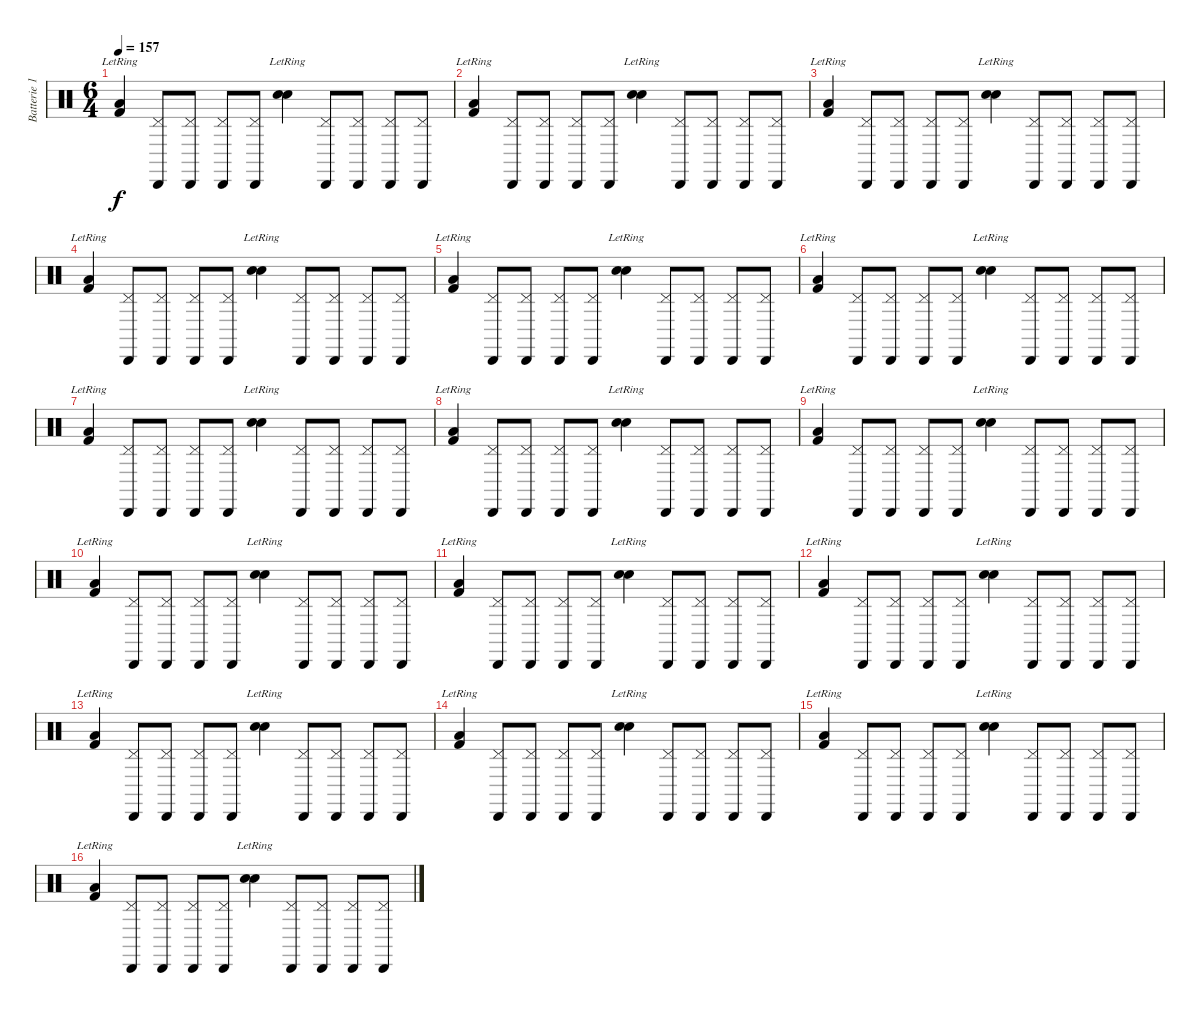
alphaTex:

\track ("Batterie 1" "Batterie 1") {instrument percussion}
\staff {score}
\articulation defaults
\ts (6 4)
\tempo 157
\clef neutral
\ks c
("Kick (hit) 2"{lr} "Low Floor Tom (hit)").4{dy f} ("Pedal Hi-Hat (hit)" "Cabasa (hit)").8 ("Pedal Hi-Hat (hit)" "Cabasa (hit)").8 ("Pedal Hi-Hat (hit)" "Cabasa (hit)").8 ("Pedal Hi-Hat (hit)" "Cabasa (hit)").8 ("Snare (hit) 2"{lr} "Electric Snare (hit)").4 ("Pedal Hi-Hat (hit)" "Cabasa (hit)").8 ("Pedal Hi-Hat (hit)" "Cabasa (hit)").8 ("Pedal Hi-Hat (hit)" "Cabasa (hit)").8 ("Pedal Hi-Hat (hit)" "Cabasa (hit)").8 |
("Kick (hit) 2"{lr} "Low Floor Tom (hit)").4 ("Pedal Hi-Hat (hit)" "Cabasa (hit)").8 ("Pedal Hi-Hat (hit)" "Cabasa (hit)").8 ("Pedal Hi-Hat (hit)" "Cabasa (hit)").8 ("Pedal Hi-Hat (hit)" "Cabasa (hit)").8 ("Snare (hit) 2"{lr} "Electric Snare (hit)").4 ("Pedal Hi-Hat (hit)" "Cabasa (hit)").8 ("Pedal Hi-Hat (hit)" "Cabasa (hit)").8 ("Pedal Hi-Hat (hit)" "Cabasa (hit)").8 ("Pedal Hi-Hat (hit)" "Cabasa (hit)").8 |
("Kick (hit) 2"{lr} "Low Floor Tom (hit)").4 ("Pedal Hi-Hat (hit)" "Cabasa (hit)").8 ("Pedal Hi-Hat (hit)" "Cabasa (hit)").8 ("Pedal Hi-Hat (hit)" "Cabasa (hit)").8 ("Pedal Hi-Hat (hit)" "Cabasa (hit)").8 ("Snare (hit) 2"{lr} "Electric Snare (hit)").4 ("Pedal Hi-Hat (hit)" "Cabasa (hit)").8 ("Pedal Hi-Hat (hit)" "Cabasa (hit)").8 ("Pedal Hi-Hat (hit)" "Cabasa (hit)").8 ("Pedal Hi-Hat (hit)" "Cabasa (hit)").8 |
("Kick (hit) 2"{lr} "Low Floor Tom (hit)").4 ("Pedal Hi-Hat (hit)" "Cabasa (hit)").8 ("Pedal Hi-Hat (hit)" "Cabasa (hit)").8 ("Pedal Hi-Hat (hit)" "Cabasa (hit)").8 ("Pedal Hi-Hat (hit)" "Cabasa (hit)").8 ("Snare (hit) 2"{lr} "Electric Snare (hit)").4 ("Pedal Hi-Hat (hit)" "Cabasa (hit)").8 ("Pedal Hi-Hat (hit)" "Cabasa (hit)").8 ("Pedal Hi-Hat (hit)" "Cabasa (hit)").8 ("Pedal Hi-Hat (hit)" "Cabasa (hit)").8 |
("Kick (hit) 2"{lr} "Low Floor Tom (hit)").4 ("Pedal Hi-Hat (hit)" "Cabasa (hit)").8 ("Pedal Hi-Hat (hit)" "Cabasa (hit)").8 ("Pedal Hi-Hat (hit)" "Cabasa (hit)").8 ("Pedal Hi-Hat (hit)" "Cabasa (hit)").8 ("Snare (hit) 2"{lr} "Electric Snare (hit)").4 ("Pedal Hi-Hat (hit)" "Cabasa (hit)").8 ("Pedal Hi-Hat (hit)" "Cabasa (hit)").8 ("Pedal Hi-Hat (hit)" "Cabasa (hit)").8 ("Pedal Hi-Hat (hit)" "Cabasa (hit)").8 |
("Kick (hit) 2"{lr} "Low Floor Tom (hit)").4 ("Pedal Hi-Hat (hit)" "Cabasa (hit)").8 ("Pedal Hi-Hat (hit)" "Cabasa (hit)").8 ("Pedal Hi-Hat (hit)" "Cabasa (hit)").8 ("Pedal Hi-Hat (hit)" "Cabasa (hit)").8 ("Snare (hit) 2"{lr} "Electric Snare (hit)").4 ("Pedal Hi-Hat (hit)" "Cabasa (hit)").8 ("Pedal Hi-Hat (hit)" "Cabasa (hit)").8 ("Pedal Hi-Hat (hit)" "Cabasa (hit)").8 ("Pedal Hi-Hat (hit)" "Cabasa (hit)").8 |
("Kick (hit) 2"{lr} "Low Floor Tom (hit)").4 ("Pedal Hi-Hat (hit)" "Cabasa (hit)").8 ("Pedal Hi-Hat (hit)" "Cabasa (hit)").8 ("Pedal Hi-Hat (hit)" "Cabasa (hit)").8 ("Pedal Hi-Hat (hit)" "Cabasa (hit)").8 ("Snare (hit) 2"{lr} "Electric Snare (hit)").4 ("Pedal Hi-Hat (hit)" "Cabasa (hit)").8 ("Pedal Hi-Hat (hit)" "Cabasa (hit)").8 ("Pedal Hi-Hat (hit)" "Cabasa (hit)").8 ("Pedal Hi-Hat (hit)" "Cabasa (hit)").8 |
("Kick (hit) 2"{lr} "Low Floor Tom (hit)").4 ("Pedal Hi-Hat (hit)" "Cabasa (hit)").8 ("Pedal Hi-Hat (hit)" "Cabasa (hit)").8 ("Pedal Hi-Hat (hit)" "Cabasa (hit)").8 ("Pedal Hi-Hat (hit)" "Cabasa (hit)").8 ("Snare (hit) 2"{lr} "Electric Snare (hit)").4 ("Pedal Hi-Hat (hit)" "Cabasa (hit)").8 ("Pedal Hi-Hat (hit)" "Cabasa (hit)").8 ("Pedal Hi-Hat (hit)" "Cabasa (hit)").8 ("Pedal Hi-Hat (hit)" "Cabasa (hit)").8 |
("Kick (hit) 2"{lr} "Low Floor Tom (hit)").4 ("Pedal Hi-Hat (hit)" "Cabasa (hit)").8 ("Pedal Hi-Hat (hit)" "Cabasa (hit)").8 ("Pedal Hi-Hat (hit)" "Cabasa (hit)").8 ("Pedal Hi-Hat (hit)" "Cabasa (hit)").8 ("Snare (hit) 2"{lr} "Electric Snare (hit)").4 ("Pedal Hi-Hat (hit)" "Cabasa (hit)").8 ("Pedal Hi-Hat (hit)" "Cabasa (hit)").8 ("Pedal Hi-Hat (hit)" "Cabasa (hit)").8 ("Pedal Hi-Hat (hit)" "Cabasa (hit)").8 |
("Kick (hit) 2"{lr} "Low Floor Tom (hit)").4 ("Pedal Hi-Hat (hit)" "Cabasa (hit)").8 ("Pedal Hi-Hat (hit)" "Cabasa (hit)").8 ("Pedal Hi-Hat (hit)" "Cabasa (hit)").8 ("Pedal Hi-Hat (hit)" "Cabasa (hit)").8 ("Snare (hit) 2"{lr} "Electric Snare (hit)").4 ("Pedal Hi-Hat (hit)" "Cabasa (hit)").8 ("Pedal Hi-Hat (hit)" "Cabasa (hit)").8 ("Pedal Hi-Hat (hit)" "Cabasa (hit)").8 ("Pedal Hi-Hat (hit)" "Cabasa (hit)").8 |
("Kick (hit) 2"{lr} "Low Floor Tom (hit)").4 ("Pedal Hi-Hat (hit)" "Cabasa (hit)").8 ("Pedal Hi-Hat (hit)" "Cabasa (hit)").8 ("Pedal Hi-Hat (hit)" "Cabasa (hit)").8 ("Pedal Hi-Hat (hit)" "Cabasa (hit)").8 ("Snare (hit) 2"{lr} "Electric Snare (hit)").4 ("Pedal Hi-Hat (hit)" "Cabasa (hit)").8 ("Pedal Hi-Hat (hit)" "Cabasa (hit)").8 ("Pedal Hi-Hat (hit)" "Cabasa (hit)").8 ("Pedal Hi-Hat (hit)" "Cabasa (hit)").8 |
("Kick (hit) 2"{lr} "Low Floor Tom (hit)").4 ("Pedal Hi-Hat (hit)" "Cabasa (hit)").8 ("Pedal Hi-Hat (hit)" "Cabasa (hit)").8 ("Pedal Hi-Hat (hit)" "Cabasa (hit)").8 ("Pedal Hi-Hat (hit)" "Cabasa (hit)").8 ("Snare (hit) 2"{lr} "Electric Snare (hit)").4 ("Pedal Hi-Hat (hit)" "Cabasa (hit)").8 ("Pedal Hi-Hat (hit)" "Cabasa (hit)").8 ("Pedal Hi-Hat (hit)" "Cabasa (hit)").8 ("Pedal Hi-Hat (hit)" "Cabasa (hit)").8 |
("Kick (hit) 2"{lr} "Low Floor Tom (hit)").4 ("Pedal Hi-Hat (hit)" "Cabasa (hit)").8 ("Pedal Hi-Hat (hit)" "Cabasa (hit)").8 ("Pedal Hi-Hat (hit)" "Cabasa (hit)").8 ("Pedal Hi-Hat (hit)" "Cabasa (hit)").8 ("Snare (hit) 2"{lr} "Electric Snare (hit)").4 ("Pedal Hi-Hat (hit)" "Cabasa (hit)").8 ("Pedal Hi-Hat (hit)" "Cabasa (hit)").8 ("Pedal Hi-Hat (hit)" "Cabasa (hit)").8 ("Pedal Hi-Hat (hit)" "Cabasa (hit)").8 |
("Kick (hit) 2"{lr} "Low Floor Tom (hit)").4 ("Pedal Hi-Hat (hit)" "Cabasa (hit)").8 ("Pedal Hi-Hat (hit)" "Cabasa (hit)").8 ("Pedal Hi-Hat (hit)" "Cabasa (hit)").8 ("Pedal Hi-Hat (hit)" "Cabasa (hit)").8 ("Snare (hit) 2"{lr} "Electric Snare (hit)").4 ("Pedal Hi-Hat (hit)" "Cabasa (hit)").8 ("Pedal Hi-Hat (hit)" "Cabasa (hit)").8 ("Pedal Hi-Hat (hit)" "Cabasa (hit)").8 ("Pedal Hi-Hat (hit)" "Cabasa (hit)").8 |
("Kick (hit) 2"{lr} "Low Floor Tom (hit)").4 ("Pedal Hi-Hat (hit)" "Cabasa (hit)").8 ("Pedal Hi-Hat (hit)" "Cabasa (hit)").8 ("Pedal Hi-Hat (hit)" "Cabasa (hit)").8 ("Pedal Hi-Hat (hit)" "Cabasa (hit)").8 ("Snare (hit) 2"{lr} "Electric Snare (hit)").4 ("Pedal Hi-Hat (hit)" "Cabasa (hit)").8 ("Pedal Hi-Hat (hit)" "Cabasa (hit)").8 ("Pedal Hi-Hat (hit)" "Cabasa (hit)").8 ("Pedal Hi-Hat (hit)" "Cabasa (hit)").8 |
("Kick (hit) 2"{lr} "Low Floor Tom (hit)").4 ("Pedal Hi-Hat (hit)" "Cabasa (hit)").8 ("Pedal Hi-Hat (hit)" "Cabasa (hit)").8 ("Pedal Hi-Hat (hit)" "Cabasa (hit)").8 ("Pedal Hi-Hat (hit)" "Cabasa (hit)").8 ("Snare (hit) 2"{lr} "Electric Snare (hit)").4 ("Pedal Hi-Hat (hit)" "Cabasa (hit)").8 ("Pedal Hi-Hat (hit)" "Cabasa (hit)").8 ("Pedal Hi-Hat (hit)" "Cabasa (hit)").8 ("Pedal Hi-Hat (hit)" "Cabasa (hit)").8
